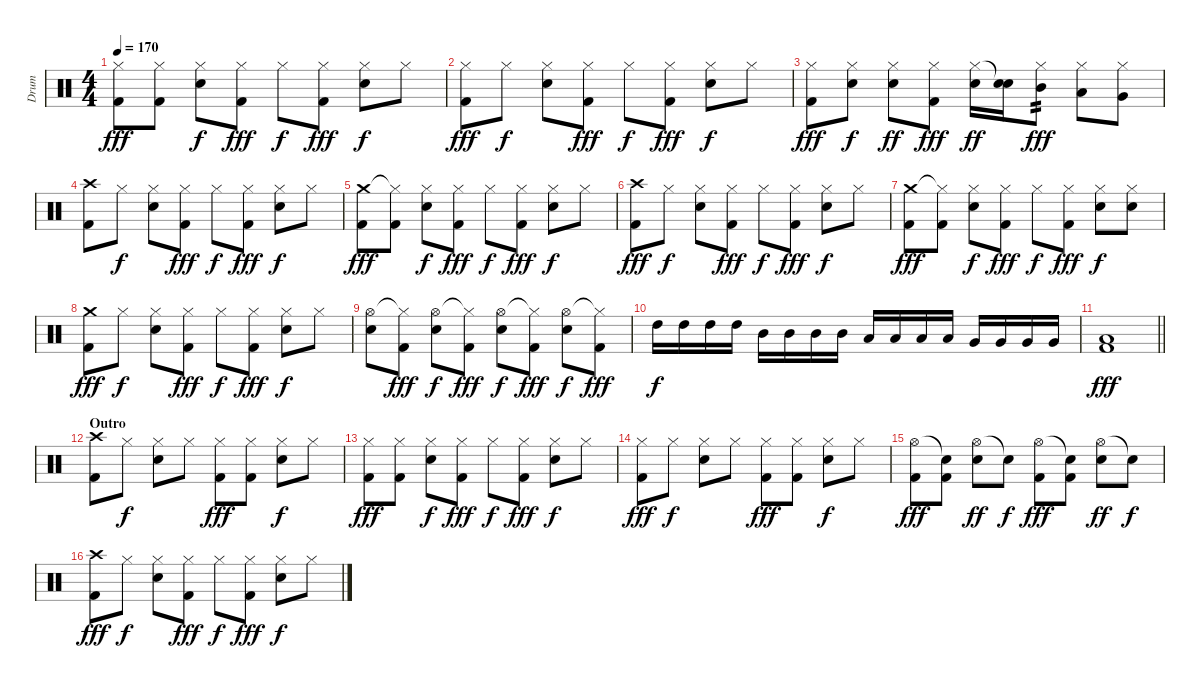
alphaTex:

\track ("Drum" "Drum") {instrument percussion}
\staff {score}
\articulation defaults
\ts (4 4)
\tempo 170
\clef neutral
\ks c
("Hi-Hat (closed)" "Kick (hit) 2").8{dy fff} ("Hi-Hat (closed)" "Kick (hit) 2").8 ("Hi-Hat (closed)" "Snare (hit) 2").8{dy f} ("Hi-Hat (closed)" "Kick (hit) 2").8{dy fff} "Hi-Hat (closed)".8{dy f} ("Hi-Hat (closed)" "Kick (hit) 2").8{dy fff} ("Hi-Hat (closed)" "Snare (hit) 2").8{dy f} "Hi-Hat (closed)".8 |
("Hi-Hat (closed)" "Kick (hit) 2").8{dy fff} "Hi-Hat (closed)".8{dy f} ("Hi-Hat (closed)" "Snare (hit) 2").8 ("Hi-Hat (closed)" "Kick (hit) 2").8{dy fff} "Hi-Hat (closed)".8{dy f} ("Hi-Hat (closed)" "Kick (hit) 2").8{dy fff} ("Hi-Hat (closed)" "Snare (hit) 2").8{dy f} "Hi-Hat (closed)".8 |
("Hi-Hat (closed)" "Kick (hit) 2").8{dy fff} ("Hi-Hat (closed)" "Snare (hit) 2").8{dy f} ("Hi-Hat (closed)" "Snare (hit) 2").8{dy ff} ("Hi-Hat (closed)" "Kick (hit) 2").8{dy fff} ("Hi-Hat (closed)" "Snare (hit) 2").16{dy ff} ("Snare (hit)"{t} "Snare (hit) 2").16 ("Hi-Hat (closed)" "Mid Tom (hit)").8{tp 2 dy fff} ("Hi-Hat (closed)" "Low Tom (hit)").8 ("Hi-Hat (closed)" "Very Low Tom (hit)").8 |
("Crash high (hit)" "Kick (hit) 2").8 "Hi-Hat (closed)".8{dy f} ("Hi-Hat (closed)" "Snare (hit) 2").8 ("Hi-Hat (closed)" "Kick (hit) 2").8{dy fff} "Hi-Hat (closed)".8{dy f} ("Hi-Hat (closed)" "Kick (hit) 2").8{dy fff} ("Hi-Hat (closed)" "Snare (hit) 2").8{dy f} "Hi-Hat (closed)".8 |
("Crash medium (hit)" "Kick (hit) 2").8{dy fff} ("Hi-Hat (closed)"{t} "Kick (hit) 2").8 ("Hi-Hat (closed)" "Snare (hit) 2").8{dy f} ("Hi-Hat (closed)" "Kick (hit) 2").8{dy fff} "Hi-Hat (closed)".8{dy f} ("Hi-Hat (closed)" "Kick (hit) 2").8{dy fff} ("Hi-Hat (closed)" "Snare (hit) 2").8{dy f} "Hi-Hat (closed)".8 |
("Crash high (hit)" "Kick (hit) 2").8{dy fff} "Hi-Hat (closed)".8{dy f} ("Hi-Hat (closed)" "Snare (hit) 2").8 ("Hi-Hat (closed)" "Kick (hit) 2").8{dy fff} "Hi-Hat (closed)".8{dy f} ("Hi-Hat (closed)" "Kick (hit) 2").8{dy fff} ("Hi-Hat (closed)" "Snare (hit) 2").8{dy f} "Hi-Hat (closed)".8 |
("Crash medium (hit)" "Kick (hit) 2").8{dy fff} ("Hi-Hat (closed)"{t} "Kick (hit) 2").8 ("Hi-Hat (closed)" "Snare (hit) 2").8{dy f} ("Hi-Hat (closed)" "Kick (hit) 2").8{dy fff} "Hi-Hat (closed)".8{dy f} ("Hi-Hat (closed)" "Kick (hit) 2").8{dy fff} ("Hi-Hat (closed)" "Snare (hit) 2").8{dy f} ("Hi-Hat (closed)" "Snare (hit) 2").8 |
("Crash medium (hit)" "Kick (hit) 2").8{dy fff} "Hi-Hat (closed)".8{dy f} ("Hi-Hat (closed)" "Snare (hit) 2").8 ("Hi-Hat (closed)" "Kick (hit) 2").8{dy fff} "Hi-Hat (closed)".8{dy f} ("Hi-Hat (closed)" "Kick (hit) 2").8{dy fff} ("Hi-Hat (closed)" "Snare (hit) 2").8{dy f} "Hi-Hat (closed)".8 |
("Hi-Hat (open)" "Snare (hit) 2").8 ("Hi-Hat (closed)"{t} "Kick (hit) 2").8{dy fff} ("Hi-Hat (open)" "Snare (hit) 2").8{dy f} ("Hi-Hat (closed)"{t} "Kick (hit) 2").8{dy fff} ("Hi-Hat (open)" "Snare (hit) 2").8{dy f} ("Hi-Hat (closed)"{t} "Kick (hit) 2").8{dy fff} ("Hi-Hat (open)" "Snare (hit) 2").8{dy f} ("Hi-Hat (closed)"{t} "Kick (hit) 2").8{dy fff} |
"High Tom (hit)".16{dy f} "High Tom (hit)".16 "High Tom (hit)".16 "High Tom (hit)".16 "Mid Tom (hit)".16 "Mid Tom (hit)".16 "Mid Tom (hit)".16 "Mid Tom (hit)".16 "Low Tom (hit)".16 "Low Tom (hit)".16 "Low Tom (hit)".16 "Low Tom (hit)".16 "Very Low Tom (hit)".16 "Very Low Tom (hit)".16 "Very Low Tom (hit)".16 "Very Low Tom (hit)".16 |
\barLineRight lightlight
("Low Floor Tom (hit)" "Kick (hit) 2").1{dy fff} |
\section ("" "Outro")
("Crash high (hit)" "Kick (hit) 2").8 "Hi-Hat (closed)".8{dy f} ("Hi-Hat (closed)" "Snare (hit) 2").8 "Hi-Hat (closed)".8 ("Hi-Hat (closed)" "Kick (hit) 2").8{dy fff} ("Hi-Hat (closed)" "Kick (hit) 2").8 ("Hi-Hat (closed)" "Snare (hit) 2").8{dy f} "Hi-Hat (closed)".8 |
("Hi-Hat (closed)" "Kick (hit) 2").8{dy fff} ("Hi-Hat (closed)" "Kick (hit) 2").8 ("Hi-Hat (closed)" "Snare (hit) 2").8{dy f} ("Hi-Hat (closed)" "Kick (hit) 2").8{dy fff} "Hi-Hat (closed)".8{dy f} ("Hi-Hat (closed)" "Kick (hit) 2").8{dy fff} ("Hi-Hat (closed)" "Snare (hit) 2").8{dy f} "Hi-Hat (closed)".8 |
("Hi-Hat (closed)" "Kick (hit) 2").8{dy fff} "Hi-Hat (closed)".8{dy f} ("Hi-Hat (closed)" "Snare (hit) 2").8 "Hi-Hat (closed)".8 ("Hi-Hat (closed)" "Kick (hit) 2").8{dy fff} ("Hi-Hat (closed)" "Kick (hit) 2").8 ("Hi-Hat (closed)" "Snare (hit) 2").8{dy f} "Hi-Hat (closed)".8 |
("Hi-Hat (open)" "Kick (hit) 2").8{dy fff} ("Snare (hit)"{t} "Kick (hit) 2").8 ("Hi-Hat (open)" "Snare (hit) 2").8{dy ff} "Snare (hit)"{t}.8{dy f} ("Hi-Hat (open)" "Kick (hit) 2").8{dy fff} ("Snare (hit)"{t} "Kick (hit) 2").8 ("Hi-Hat (open)" "Snare (hit) 2").8{dy ff} "Snare (hit)"{t}.8{dy f} |
("Crash high (hit)" "Kick (hit) 2").8{dy fff} "Hi-Hat (closed)".8{dy f} ("Hi-Hat (closed)" "Snare (hit) 2").8 ("Hi-Hat (closed)" "Kick (hit) 2").8{dy fff} "Hi-Hat (closed)".8{dy f} ("Hi-Hat (closed)" "Kick (hit) 2").8{dy fff} ("Hi-Hat (closed)" "Snare (hit) 2").8{dy f} "Hi-Hat (closed)".8
